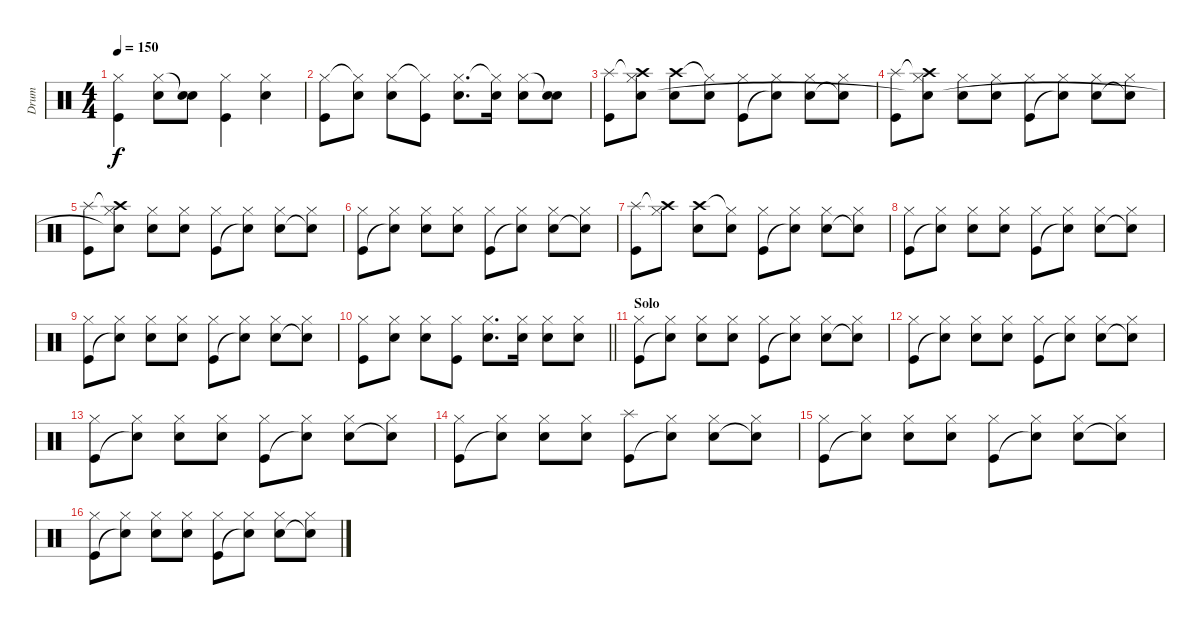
\track ("Drum" "Drum") {instrument percussion}
\staff {score}
\articulation defaults
\ts (4 4)
\tempo 150
\clef neutral
\ks c
("Hi-Hat (closed)" "Kick (hit)").4{dy f} ("Hi-Hat (closed)" "Snare (hit) 2").8 ("Snare (hit)"{t} "Snare (hit) 2").8 ("Hi-Hat (closed)" "Kick (hit)").4 ("Hi-Hat (closed)" "Snare (hit) 2").4 |
("Hi-Hat (closed)" "Kick (hit)").8 ("Hi-Hat (closed)"{t} "Snare (hit) 2").8 ("Hi-Hat (closed)" "Snare (hit) 2").8 ("Hi-Hat (closed)"{t} "Kick (hit)").8 ("Hi-Hat (closed)" "Snare (hit) 2").8{d} ("Hi-Hat (closed)"{t} "Snare (hit) 2").16 ("Hi-Hat (closed)" "Snare (hit) 2").8 ("Snare (hit)"{t} "Snare (hit) 2").8 |
("Splash (hit)" "Kick (hit)").8 ("Crash high (hit)"{t} "Hi-Hat (closed)" "Snare (hit)").8 ("Crash high (hit)" "Snare (hit) 2").8 ("Hi-Hat (closed)"{t} "Snare (hit) 2").8 ("Hi-Hat (closed)" "Kick (hit)").8 ("Hi-Hat (closed)" "Snare (hit)"{t}).8 ("Hi-Hat (closed)" "Snare (hit) 2").8 ("Hi-Hat (closed)" "Snare (hit)"{t}).8 |
("Splash (hit)" "Kick (hit)").8 ("Crash high (hit)"{t} "Hi-Hat (closed)" "Snare (hit)"{t}).8 ("Hi-Hat (closed)" "Snare (hit) 2").8 ("Hi-Hat (closed)" "Snare (hit) 2").8 ("Hi-Hat (closed)" "Kick (hit)").8 ("Hi-Hat (closed)" "Snare (hit)"{t}).8 ("Hi-Hat (closed)" "Snare (hit) 2").8 ("Hi-Hat (closed)" "Snare (hit)"{t}).8 |
("Splash (hit)" "Kick (hit)").8 ("Crash high (hit)"{t} "Hi-Hat (closed)" "Snare (hit)"{t}).8 ("Hi-Hat (closed)" "Snare (hit) 2").8 ("Hi-Hat (closed)" "Snare (hit) 2").8 ("Hi-Hat (closed)" "Kick (hit)").8 ("Hi-Hat (closed)" "Snare (hit)"{t}).8 ("Hi-Hat (closed)" "Snare (hit) 2").8 ("Hi-Hat (closed)" "Snare (hit)"{t}).8 |
("Hi-Hat (closed)" "Kick (hit)").8 ("Hi-Hat (closed)" "Snare (hit)"{t}).8 ("Hi-Hat (closed)" "Snare (hit) 2").8 ("Hi-Hat (closed)" "Snare (hit) 2").8 ("Hi-Hat (closed)" "Kick (hit)").8 ("Hi-Hat (closed)" "Snare (hit)"{t}).8 ("Hi-Hat (closed)" "Snare (hit) 2").8 ("Hi-Hat (closed)" "Snare (hit)"{t}).8 |
("Splash (hit)" "Kick (hit)").8 ("Crash high (hit)"{t} "Hi-Hat (closed)").8 ("Crash high (hit)" "Snare (hit) 2").8 ("Hi-Hat (closed)"{t} "Snare (hit) 2").8 ("Hi-Hat (closed)" "Kick (hit)").8 ("Hi-Hat (closed)" "Snare (hit)"{t}).8 ("Hi-Hat (closed)" "Snare (hit) 2").8 ("Hi-Hat (closed)" "Snare (hit)"{t}).8 |
("Hi-Hat (closed)" "Kick (hit)").8 ("Hi-Hat (closed)" "Snare (hit)"{t}).8 ("Hi-Hat (closed)" "Snare (hit) 2").8 ("Hi-Hat (closed)" "Snare (hit) 2").8 ("Hi-Hat (closed)" "Kick (hit)").8 ("Hi-Hat (closed)" "Snare (hit)"{t}).8 ("Hi-Hat (closed)" "Snare (hit) 2").8 ("Hi-Hat (closed)" "Snare (hit)"{t}).8 |
("Hi-Hat (closed)" "Kick (hit)").8 ("Hi-Hat (closed)" "Snare (hit)"{t}).8 ("Hi-Hat (closed)" "Snare (hit) 2").8 ("Hi-Hat (closed)" "Snare (hit) 2").8 ("Hi-Hat (closed)" "Kick (hit)").8 ("Hi-Hat (closed)" "Snare (hit)"{t}).8 ("Hi-Hat (closed)" "Snare (hit) 2").8 ("Hi-Hat (closed)" "Snare (hit)"{t}).8 |
\barLineRight lightlight
("Hi-Hat (closed)" "Kick (hit)").8 ("Hi-Hat (closed)" "Snare (hit) 2").8 ("Hi-Hat (closed)" "Snare (hit) 2").8 ("Hi-Hat (closed)" "Kick (hit)").8 ("Hi-Hat (closed)" "Snare (hit) 2").8{d} ("Hi-Hat (closed)" "Snare (hit) 2").16 ("Hi-Hat (closed)" "Snare (hit) 2").8 ("Hi-Hat (closed)" "Snare (hit) 2").8 |
\section ("" "Solo")
("Hi-Hat (closed)" "Kick (hit)").8 ("Hi-Hat (closed)" "Snare (hit)"{t}).8 ("Hi-Hat (closed)" "Snare (hit) 2").8 ("Hi-Hat (closed)" "Snare (hit) 2").8 ("Hi-Hat (closed)" "Kick (hit)").8 ("Hi-Hat (closed)" "Snare (hit)"{t}).8 ("Hi-Hat (closed)" "Snare (hit) 2").8 ("Hi-Hat (closed)" "Snare (hit)"{t}).8 |
("Hi-Hat (closed)" "Kick (hit)").8 ("Hi-Hat (closed)" "Snare (hit)"{t}).8 ("Hi-Hat (closed)" "Snare (hit) 2").8 ("Hi-Hat (closed)" "Snare (hit) 2").8 ("Hi-Hat (closed)" "Kick (hit)").8 ("Hi-Hat (closed)" "Snare (hit)"{t}).8 ("Hi-Hat (closed)" "Snare (hit) 2").8 ("Hi-Hat (closed)" "Snare (hit)"{t}).8 |
("Hi-Hat (closed)" "Kick (hit)").8 ("Hi-Hat (closed)" "Snare (hit)"{t}).8 ("Hi-Hat (closed)" "Snare (hit) 2").8 ("Hi-Hat (closed)" "Snare (hit) 2").8 ("Hi-Hat (closed)" "Kick (hit)").8 ("Hi-Hat (closed)" "Snare (hit)"{t}).8 ("Hi-Hat (closed)" "Snare (hit) 2").8 ("Hi-Hat (closed)" "Snare (hit)"{t}).8 |
("Hi-Hat (closed)" "Kick (hit)").8 ("Hi-Hat (closed)" "Snare (hit)"{t}).8 ("Hi-Hat (closed)" "Snare (hit) 2").8 ("Hi-Hat (closed)" "Snare (hit) 2").8 ("Splash (hit)" "Kick (hit)").8 ("Hi-Hat (closed)" "Snare (hit)"{t}).8 ("Hi-Hat (closed)" "Snare (hit) 2").8 ("Hi-Hat (closed)" "Snare (hit)"{t}).8 |
("Hi-Hat (closed)" "Kick (hit)").8 ("Hi-Hat (closed)" "Snare (hit)"{t}).8 ("Hi-Hat (closed)" "Snare (hit) 2").8 ("Hi-Hat (closed)" "Snare (hit) 2").8 ("Hi-Hat (closed)" "Kick (hit)").8 ("Hi-Hat (closed)" "Snare (hit)"{t}).8 ("Hi-Hat (closed)" "Snare (hit) 2").8 ("Hi-Hat (closed)" "Snare (hit)"{t}).8 |
("Hi-Hat (closed)" "Kick (hit)").8 ("Hi-Hat (closed)" "Snare (hit)"{t}).8 ("Hi-Hat (closed)" "Snare (hit) 2").8 ("Hi-Hat (closed)" "Snare (hit) 2").8 ("Hi-Hat (closed)" "Kick (hit)").8 ("Hi-Hat (closed)" "Snare (hit)"{t}).8 ("Hi-Hat (closed)" "Snare (hit) 2").8 ("Hi-Hat (closed)" "Snare (hit)"{t}).8
